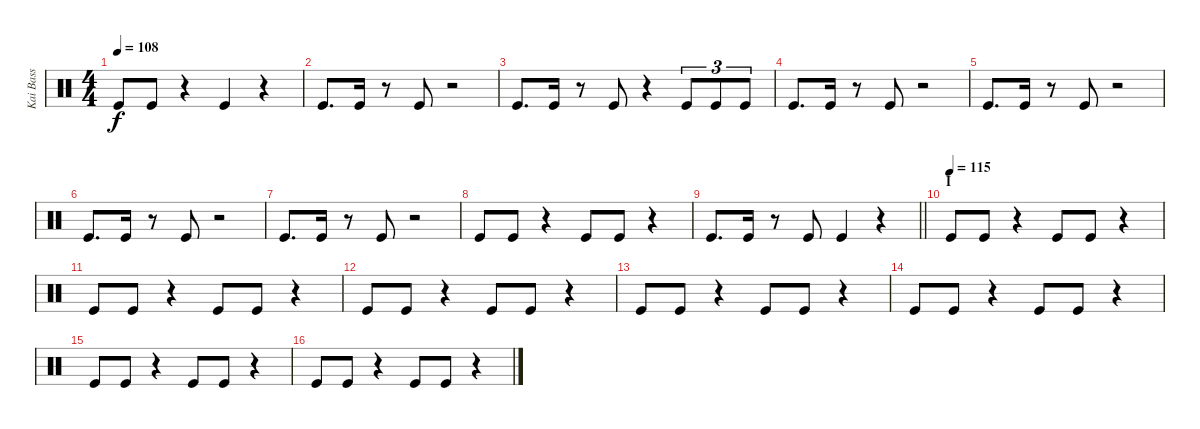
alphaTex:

\track ("Kai Bass" "Kai Bass") {instrument percussion}
\staff {score}
\articulation defaults
\ts (4 4)
\tempo 108
\clef neutral
\ks c "Kick (hit)".8{dy f} "Kick (hit)".8
r.4 "Kick (hit)".4 r.4 |
"Kick (hit)".8{d} "Kick (hit)".16 r.8 "Kick (hit)".8 r.2 |
"Kick (hit)".8{d} "Kick (hit)".16 r.8 "Kick (hit)".8 r.4 "Kick (hit)".8{tu (3 2)} "Kick (hit)".8{tu (3 2)} "Kick (hit)".8{tu (3 2)} |
"Kick (hit)".8{d} "Kick (hit)".16 r.8 "Kick (hit)".8 r.2 |
"Kick (hit)".8{d} "Kick (hit)".16 r.8 "Kick (hit)".8 r.2 |
"Kick (hit)".8{d} "Kick (hit)".16 r.8 "Kick (hit)".8 r.2 |
"Kick (hit)".8{d} "Kick (hit)".16 r.8 "Kick (hit)".8 r.2 |
"Kick (hit)".8 "Kick (hit)".8 r.4 "Kick (hit)".8 "Kick (hit)".8 r.4 |
\barLineRight lightlight "Kick (hit)".8{d} "Kick (hit)".16
r.8 "Kick (hit)".8 "Kick (hit)".4 r.4 |
\section ("" "I")
\tempo (115)
"Kick (hit)".8 "Kick (hit)".8 r.4 "Kick (hit)".8 "Kick (hit)".8 r.4 |
"Kick (hit)".8 "Kick (hit)".8 r.4 "Kick (hit)".8 "Kick (hit)".8 r.4 |
"Kick (hit)".8 "Kick (hit)".8 r.4 "Kick (hit)".8 "Kick (hit)".8 r.4 |
"Kick (hit)".8 "Kick (hit)".8 r.4 "Kick (hit)".8 "Kick (hit)".8 r.4 |
"Kick (hit)".8 "Kick (hit)".8 r.4 "Kick (hit)".8 "Kick (hit)".8 r.4 |
"Kick (hit)".8 "Kick (hit)".8 r.4 "Kick (hit)".8 "Kick (hit)".8 r.4 |
"Kick (hit)".8 "Kick (hit)".8 r.4 "Kick (hit)".8 "Kick (hit)".8 r.4
